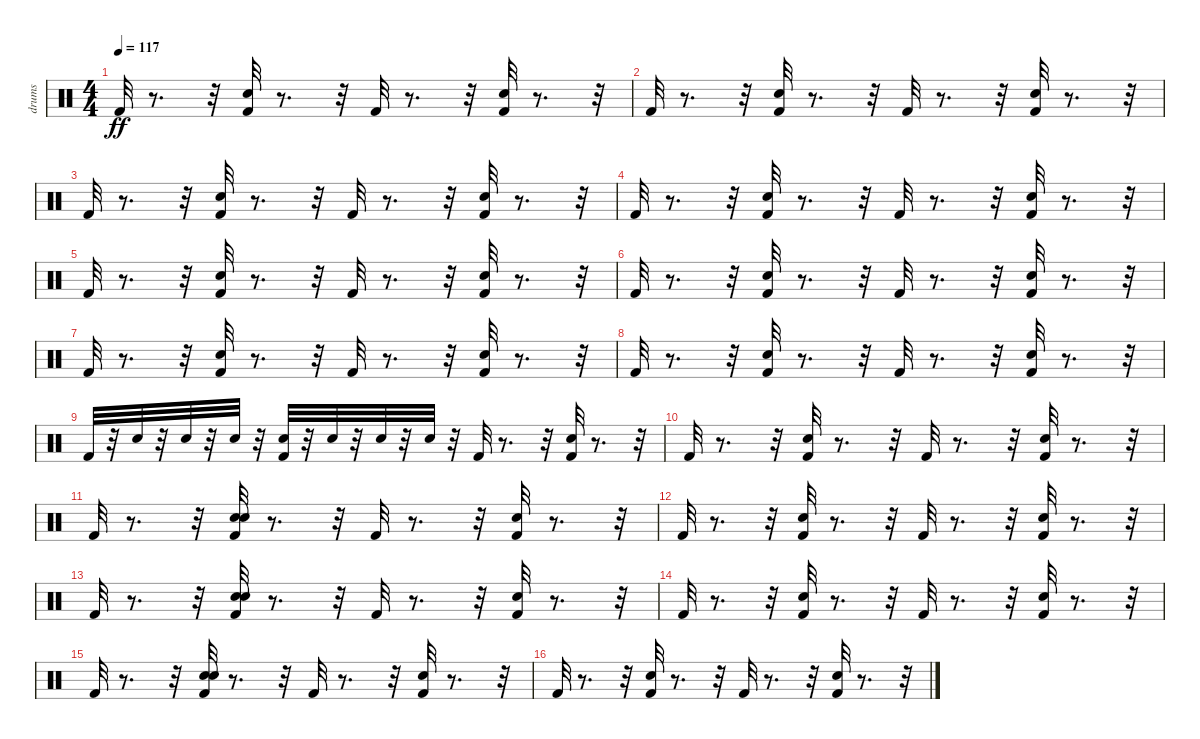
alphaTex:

\track ("drums   " "drums   ") {instrument percussion}
\staff {score}
\articulation defaults
\ts (4 4)
\tempo 117
\clef neutral
\ks c "Kick (hit) 2".32{dy ff}
r.8{d} r.32 ("Kick (hit) 2" "Snare (hit) 2").32 r.8{d} r.32 "Kick (hit) 2".32 r.8{d} r.32 ("Kick (hit) 2" "Snare (hit) 2").32 r.8{d} r.32 |
"Kick (hit) 2".32 r.8{d} r.32 ("Kick (hit) 2" "Snare (hit) 2").32 r.8{d} r.32 "Kick (hit) 2".32 r.8{d} r.32 ("Kick (hit) 2" "Snare (hit) 2").32 r.8{d} r.32 |
"Kick (hit) 2".32 r.8{d} r.32 ("Kick (hit) 2" "Snare (hit) 2").32 r.8{d} r.32 "Kick (hit) 2".32 r.8{d} r.32 ("Kick (hit) 2" "Snare (hit) 2").32 r.8{d} r.32 |
"Kick (hit) 2".32 r.8{d} r.32 ("Kick (hit) 2" "Snare (hit) 2").32 r.8{d} r.32 "Kick (hit) 2".32 r.8{d} r.32 ("Kick (hit) 2" "Snare (hit) 2").32 r.8{d} r.32 |
"Kick (hit) 2".32 r.8{d} r.32 ("Kick (hit) 2" "Snare (hit) 2").32 r.8{d} r.32 "Kick (hit) 2".32 r.8{d} r.32 ("Kick (hit) 2" "Snare (hit) 2").32 r.8{d} r.32 |
"Kick (hit) 2".32 r.8{d} r.32 ("Kick (hit) 2" "Snare (hit) 2").32 r.8{d} r.32 "Kick (hit) 2".32 r.8{d} r.32 ("Kick (hit) 2" "Snare (hit) 2").32 r.8{d} r.32 |
"Kick (hit) 2".32 r.8{d} r.32 ("Kick (hit) 2" "Snare (hit) 2").32 r.8{d} r.32 "Kick (hit) 2".32 r.8{d} r.32 ("Kick (hit) 2" "Snare (hit) 2").32 r.8{d} r.32 |
"Kick (hit) 2".32 r.8{d} r.32 ("Kick (hit) 2" "Snare (hit) 2").32 r.8{d} r.32 "Kick (hit) 2".32 r.8{d} r.32 ("Kick (hit) 2" "Snare (hit) 2").32 r.8{d} r.32 |
"Kick (hit) 2".32 r.32 "Snare (hit) 2".32 r.32 "Snare (hit) 2".32 r.32 "Snare (hit) 2".32 r.32 ("Kick (hit) 2" "Snare (hit) 2").32 r.32 "Snare (hit) 2".32 r.32 "Snare (hit) 2".32 r.32 "Snare (hit) 2".32 r.32 "Kick (hit) 2".32 r.8{d} r.32 ("Kick (hit) 2" "Snare (hit) 2").32 r.8{d} r.32 |
"Kick (hit) 2".32 r.8{d} r.32 ("Kick (hit) 2" "Snare (hit) 2").32 r.8{d} r.32 "Kick (hit) 2".32 r.8{d} r.32 ("Snare (hit) 2" "Kick (hit) 2").32 r.8{d} r.32 |
"Kick (hit) 2".32 r.8{d} r.32 ("Kick (hit) 2" "Snare (hit) 2" "Hand Clap (hit)").32 r.8{d} r.32 "Kick (hit) 2".32 r.8{d} r.32 ("Kick (hit) 2" "Snare (hit) 2").32 r.8{d} r.32 |
"Kick (hit) 2".32 r.8{d} r.32 ("Snare (hit) 2" "Kick (hit) 2").32 r.8{d} r.32 "Kick (hit) 2".32 r.8{d} r.32 ("Kick (hit) 2" "Snare (hit) 2").32 r.8{d} r.32 |
"Kick (hit) 2".32 r.8{d} r.32 ("Kick (hit) 2" "Snare (hit) 2" "Hand Clap (hit)").32 r.8{d} r.32 "Kick (hit) 2".32 r.8{d} r.32 ("Snare (hit) 2" "Kick (hit) 2").32 r.8{d} r.32 |
"Kick (hit) 2".32 r.8{d} r.32 ("Kick (hit) 2" "Snare (hit) 2").32 r.8{d} r.32 "Kick (hit) 2".32 r.8{d} r.32 ("Snare (hit) 2" "Kick (hit) 2").32 r.8{d} r.32 |
"Kick (hit) 2".32 r.8{d} r.32 ("Kick (hit) 2" "Snare (hit) 2" "Hand Clap (hit)").32 r.8{d} r.32 "Kick (hit) 2".32 r.8{d} r.32 ("Kick (hit) 2" "Snare (hit) 2").32 r.8{d} r.32 |
"Kick (hit) 2".32 r.8{d} r.32 ("Kick (hit) 2" "Snare (hit) 2").32 r.8{d} r.32 "Kick (hit) 2".32 r.8{d} r.32 ("Kick (hit) 2" "Snare (hit) 2").32 r.8{d} r.32
